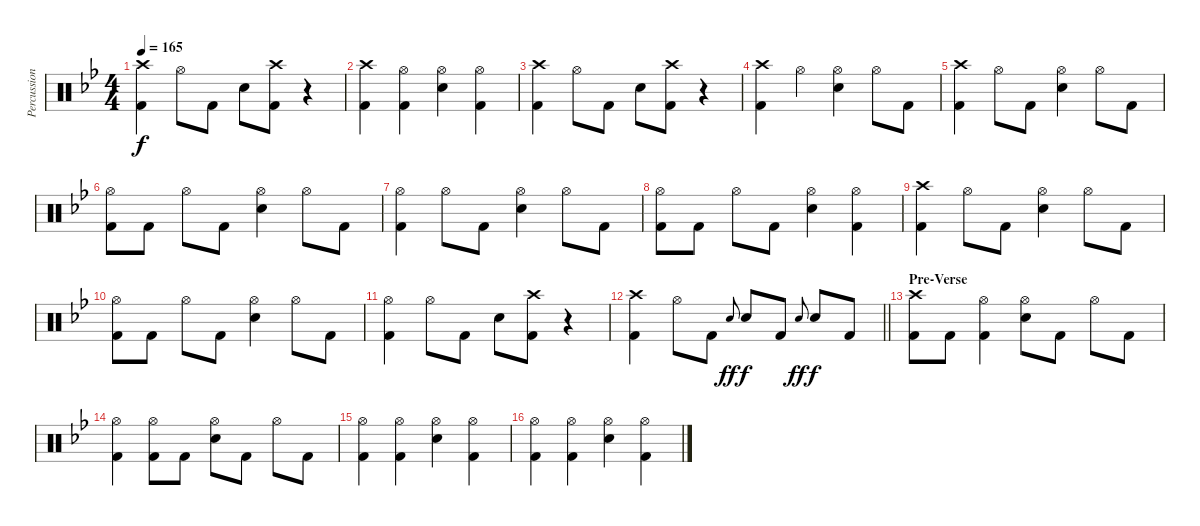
\track ("Percussion - Aaron" "Percussion") {instrument percussion}
\staff {score}
\articulation defaults
\ts (4 4)
\tempo 165
\clef neutral
\ks gminor
("Crash high (hit)" "Kick (hit) 2").4{dy f} "Hi-Hat (open)".8 "Kick (hit) 2".8 "Electric Snare (hit)".8 ("Crash high (hit)" "Kick (hit) 2").8 r.4 |
("Crash high (hit)" "Kick (hit) 2").4 ("Hi-Hat (open)" "Kick (hit) 2").4 ("Hi-Hat (open)" "Electric Snare (hit)").4 ("Hi-Hat (open)" "Kick (hit) 2").4 |
("Crash high (hit)" "Kick (hit) 2").4 "Hi-Hat (open)".8 "Kick (hit) 2".8 "Electric Snare (hit)".8 ("Crash high (hit)" "Kick (hit) 2").8 r.4 |
("Crash high (hit)" "Kick (hit) 2").4 "Hi-Hat (open)".4 ("Hi-Hat (open)" "Electric Snare (hit)").4 "Hi-Hat (open)".8 "Kick (hit) 2".8 |
("Crash high (hit)" "Kick (hit) 2").4 "Hi-Hat (open)".8 "Kick (hit) 2".8 ("Hi-Hat (open)" "Electric Snare (hit)").4 "Hi-Hat (open)".8 "Kick (hit) 2".8 |
("Hi-Hat (open)" "Kick (hit) 2").8 "Kick (hit) 2".8 "Hi-Hat (open)".8 "Kick (hit) 2".8 ("Hi-Hat (open)" "Electric Snare (hit)").4 "Hi-Hat (open)".8 "Kick (hit) 2".8 |
("Hi-Hat (open)" "Kick (hit) 2").4 "Hi-Hat (open)".8 "Kick (hit) 2".8 ("Hi-Hat (open)" "Electric Snare (hit)").4 "Hi-Hat (open)".8 "Kick (hit) 2".8 |
("Hi-Hat (open)" "Kick (hit) 2").8 "Kick (hit) 2".8 "Hi-Hat (open)".8 "Kick (hit) 2".8 ("Hi-Hat (open)" "Electric Snare (hit)").4 ("Hi-Hat (open)" "Kick (hit) 2").4 |
("Crash high (hit)" "Kick (hit) 2").4 "Hi-Hat (open)".8 "Kick (hit) 2".8 ("Hi-Hat (open)" "Electric Snare (hit)").4 "Hi-Hat (open)".8 "Kick (hit) 2".8 |
("Hi-Hat (open)" "Kick (hit) 2").8 "Kick (hit) 2".8 "Hi-Hat (open)".8 "Kick (hit) 2".8 ("Hi-Hat (open)" "Electric Snare (hit)").4 "Hi-Hat (open)".8 "Kick (hit) 2".8 |
("Hi-Hat (open)" "Kick (hit) 2").4 "Hi-Hat (open)".8 "Kick (hit) 2".8 "Electric Snare (hit)".8 ("Crash high (hit)" "Kick (hit) 2").8 r.4 |
\barLineRight lightlight
("Crash high (hit)" "Kick (hit) 2").4 "Hi-Hat (open)".8 "Kick (hit) 2".8 "Electric Snare (hit)".8{gr onbeat dy ff} "Electric Snare (hit)".8{dy f} "Kick (hit) 2".8 "Electric Snare (hit)".8{gr onbeat dy ff} "Electric Snare (hit)".8{dy f} "Kick (hit) 2".8 |
\section ("" "Pre-Verse")
("Crash high (hit)" "Kick (hit) 2").8 "Kick (hit) 2".8 ("Hi-Hat (open)" "Kick (hit) 2").4 ("Hi-Hat (open)" "Electric Snare (hit)").8 "Kick (hit) 2".8 "Hi-Hat (open)".8 "Kick (hit) 2".8 |
("Hi-Hat (open)" "Kick (hit) 2").4 ("Hi-Hat (open)" "Kick (hit) 2").8 "Kick (hit) 2".8 ("Hi-Hat (open)" "Electric Snare (hit)").8 "Kick (hit) 2".8 "Hi-Hat (open)".8 "Kick (hit) 2".8 |
("Hi-Hat (open)" "Kick (hit) 2").4 ("Hi-Hat (open)" "Kick (hit) 2").4 ("Hi-Hat (open)" "Electric Snare (hit)").4 ("Hi-Hat (open)" "Kick (hit) 2").4 |
("Hi-Hat (open)" "Kick (hit) 2").4 ("Hi-Hat (open)" "Kick (hit) 2").4 ("Hi-Hat (open)" "Electric Snare (hit)").4 ("Hi-Hat (open)" "Kick (hit) 2").4
